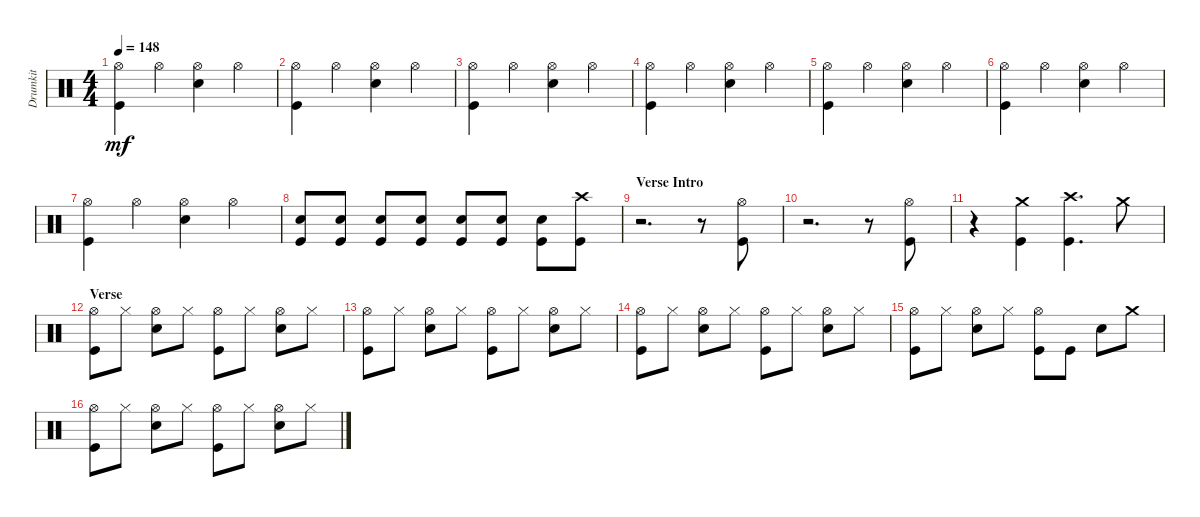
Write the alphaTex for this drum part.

\track ("Drumkit" "Drumkit") {instrument percussion}
\staff {score}
\articulation defaults
\ts (4 4)
\tempo 148
\clef neutral
\ks c
("Kick (hit)" "Hi-Hat (open)").4{dy mf} "Hi-Hat (open)".4 ("Snare (hit) 2" "Hi-Hat (open)").4 "Hi-Hat (open)".4 |
("Kick (hit)" "Hi-Hat (open)").4 "Hi-Hat (open)".4 ("Snare (hit) 2" "Hi-Hat (open)").4 "Hi-Hat (open)".4 |
("Kick (hit)" "Hi-Hat (open)").4 "Hi-Hat (open)".4 ("Snare (hit) 2" "Hi-Hat (open)").4 "Hi-Hat (open)".4 |
("Kick (hit)" "Hi-Hat (open)").4 "Hi-Hat (open)".4 ("Snare (hit) 2" "Hi-Hat (open)").4 "Hi-Hat (open)".4 |
("Kick (hit)" "Hi-Hat (open)").4 "Hi-Hat (open)".4 ("Snare (hit) 2" "Hi-Hat (open)").4 "Hi-Hat (open)".4 |
("Kick (hit)" "Hi-Hat (open)").4 "Hi-Hat (open)".4 ("Snare (hit) 2" "Hi-Hat (open)").4 "Hi-Hat (open)".4 |
("Kick (hit)" "Hi-Hat (open)").4 "Hi-Hat (open)".4 ("Snare (hit) 2" "Hi-Hat (open)").4 "Hi-Hat (open)".4 |
("Snare (hit) 2" "Kick (hit)").8 ("Snare (hit) 2" "Kick (hit)").8 ("Snare (hit) 2" "Kick (hit)").8 ("Snare (hit) 2" "Kick (hit)").8 ("Snare (hit) 2" "Kick (hit)").8 ("Snare (hit) 2" "Kick (hit)").8 ("Snare (hit) 2" "Kick (hit)").8 ("Kick (hit)" "Crash high (hit)").8 |
\section ("" "Verse Intro ")
r.2{d} r.8 ("Kick (hit)" "Hi-Hat (open)").8 |
r.2{d} r.8 ("Kick (hit)" "Hi-Hat (open)").8 |
r.4 ("Kick (hit)" "Crash medium (hit)").4 ("Kick (hit)" "Crash high (hit)").4{d} "Crash medium (hit)".8 |
\section ("" "Verse")
("Kick (hit)" "Hi-Hat (open)").8 "Hi-Hat (closed)".8 ("Snare (hit) 2" "Hi-Hat (open)").8 "Hi-Hat (closed)".8 ("Kick (hit)" "Hi-Hat (open)").8 "Hi-Hat (closed)".8 ("Snare (hit) 2" "Hi-Hat (open)").8 "Hi-Hat (closed)".8 |
("Kick (hit)" "Hi-Hat (open)").8 "Hi-Hat (closed)".8 ("Snare (hit) 2" "Hi-Hat (open)").8 "Hi-Hat (closed)".8 ("Kick (hit)" "Hi-Hat (open)").8 "Hi-Hat (closed)".8 ("Snare (hit) 2" "Hi-Hat (open)").8 "Hi-Hat (closed)".8 |
("Kick (hit)" "Hi-Hat (open)").8 "Hi-Hat (closed)".8 ("Snare (hit) 2" "Hi-Hat (open)").8 "Hi-Hat (closed)".8 ("Kick (hit)" "Hi-Hat (open)").8 "Hi-Hat (closed)".8 ("Snare (hit) 2" "Hi-Hat (open)").8 "Hi-Hat (closed)".8 |
("Kick (hit)" "Hi-Hat (open)").8 "Hi-Hat (closed)".8 ("Snare (hit) 2" "Hi-Hat (open)").8 "Hi-Hat (closed)".8 ("Kick (hit)" "Hi-Hat (open)").8 "Kick (hit)".8 "Snare (hit) 2".8 "Crash medium (hit)".8 |
("Kick (hit)" "Hi-Hat (open)").8 "Hi-Hat (closed)".8 ("Snare (hit) 2" "Hi-Hat (open)").8 "Hi-Hat (closed)".8 ("Kick (hit)" "Hi-Hat (open)").8 "Hi-Hat (closed)".8 ("Snare (hit) 2" "Hi-Hat (open)").8 "Hi-Hat (closed)".8
